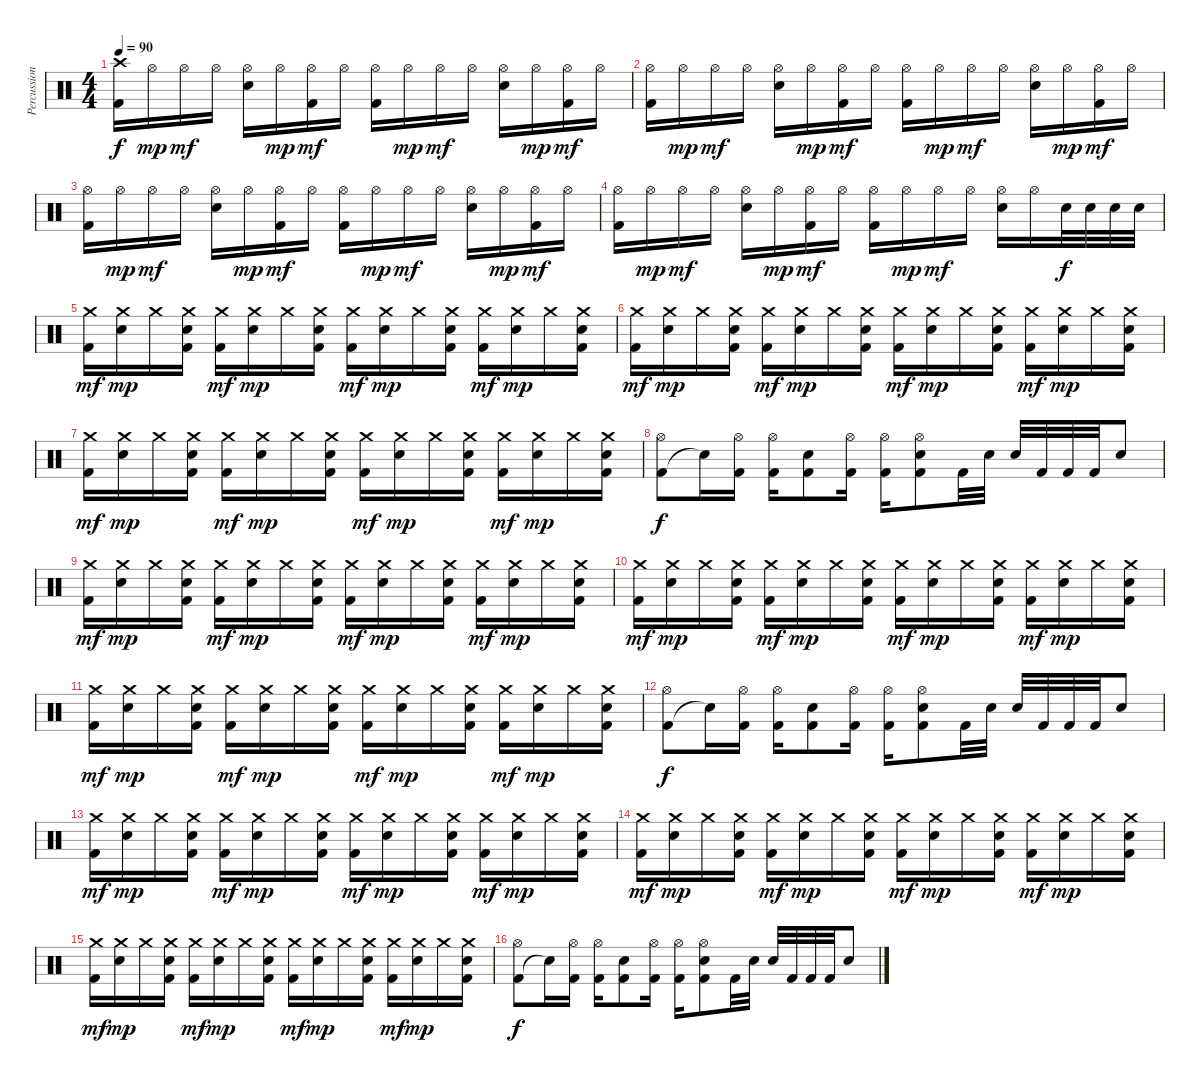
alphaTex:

\track ("Percussioni" "Percussion") {instrument percussion}
\staff {score}
\articulation defaults
\ts (4 4)
\tempo 90
\clef neutral
\ks c
("Kick (hit) 2" "Crash high (hit)").16{dy f} "Hi-Hat (open)".16{dy mp} "Hi-Hat (open)".16{dy mf} "Hi-Hat (open)".16 ("Electric Snare (hit)" "Hi-Hat (open)").16 "Hi-Hat (open)".16{dy mp} ("Kick (hit) 2" "Hi-Hat (open)").16{dy mf} "Hi-Hat (open)".16 ("Kick (hit) 2" "Hi-Hat (open)").16 "Hi-Hat (open)".16{dy mp} "Hi-Hat (open)".16{dy mf} "Hi-Hat (open)".16 ("Electric Snare (hit)" "Hi-Hat (open)").16 "Hi-Hat (open)".16{dy mp} ("Kick (hit) 2" "Hi-Hat (open)").16{dy mf} "Hi-Hat (open)".16 |
("Kick (hit) 2" "Hi-Hat (open)").16 "Hi-Hat (open)".16{dy mp} "Hi-Hat (open)".16{dy mf} "Hi-Hat (open)".16 ("Electric Snare (hit)" "Hi-Hat (open)").16 "Hi-Hat (open)".16{dy mp} ("Kick (hit) 2" "Hi-Hat (open)").16{dy mf} "Hi-Hat (open)".16 ("Kick (hit) 2" "Hi-Hat (open)").16 "Hi-Hat (open)".16{dy mp} "Hi-Hat (open)".16{dy mf} "Hi-Hat (open)".16 ("Electric Snare (hit)" "Hi-Hat (open)").16 "Hi-Hat (open)".16{dy mp} ("Kick (hit) 2" "Hi-Hat (open)").16{dy mf} "Hi-Hat (open)".16 |
("Kick (hit) 2" "Hi-Hat (open)").16 "Hi-Hat (open)".16{dy mp} "Hi-Hat (open)".16{dy mf} "Hi-Hat (open)".16 ("Electric Snare (hit)" "Hi-Hat (open)").16 "Hi-Hat (open)".16{dy mp} ("Kick (hit) 2" "Hi-Hat (open)").16{dy mf} "Hi-Hat (open)".16 ("Kick (hit) 2" "Hi-Hat (open)").16 "Hi-Hat (open)".16{dy mp} "Hi-Hat (open)".16{dy mf} "Hi-Hat (open)".16 ("Electric Snare (hit)" "Hi-Hat (open)").16 "Hi-Hat (open)".16{dy mp} ("Kick (hit) 2" "Hi-Hat (open)").16{dy mf} "Hi-Hat (open)".16 |
("Kick (hit) 2" "Hi-Hat (open)").16 "Hi-Hat (open)".16{dy mp} "Hi-Hat (open)".16{dy mf} "Hi-Hat (open)".16 ("Electric Snare (hit)" "Hi-Hat (open)").16 "Hi-Hat (open)".16{dy mp} ("Kick (hit) 2" "Hi-Hat (open)").16{dy mf} "Hi-Hat (open)".16 ("Kick (hit) 2" "Hi-Hat (open)").16 "Hi-Hat (open)".16{dy mp} "Hi-Hat (open)".16{dy mf} "Hi-Hat (open)".16 ("Electric Snare (hit)" "Hi-Hat (open)").16 "Hi-Hat (open)".16 "Electric Snare (hit)".32{dy f} "Electric Snare (hit)".32 "Electric Snare (hit)".32 "Electric Snare (hit)".32 |
("Kick (hit) 2" "Crash medium (hit)").16{dy mf} ("Electric Snare (hit)" "Crash medium (hit)").16{dy mp} "Crash medium (hit)".16 ("Kick (hit) 2" "Electric Snare (hit)" "Crash medium (hit)").16 ("Kick (hit) 2" "Crash medium (hit)").16{dy mf} ("Electric Snare (hit)" "Crash medium (hit)").16{dy mp} "Crash medium (hit)".16 ("Kick (hit) 2" "Electric Snare (hit)" "Crash medium (hit)").16 ("Kick (hit) 2" "Crash medium (hit)").16{dy mf} ("Electric Snare (hit)" "Crash medium (hit)").16{dy mp} "Crash medium (hit)".16 ("Kick (hit) 2" "Electric Snare (hit)" "Crash medium (hit)").16 ("Kick (hit) 2" "Crash medium (hit)").16{dy mf} ("Electric Snare (hit)" "Crash medium (hit)").16{dy mp} "Crash medium (hit)".16 ("Kick (hit) 2" "Electric Snare (hit)" "Crash medium (hit)").16 |
("Kick (hit) 2" "Crash medium (hit)").16{dy mf} ("Electric Snare (hit)" "Crash medium (hit)").16{dy mp} "Crash medium (hit)".16 ("Kick (hit) 2" "Electric Snare (hit)" "Crash medium (hit)").16 ("Kick (hit) 2" "Crash medium (hit)").16{dy mf} ("Electric Snare (hit)" "Crash medium (hit)").16{dy mp} "Crash medium (hit)".16 ("Kick (hit) 2" "Electric Snare (hit)" "Crash medium (hit)").16 ("Kick (hit) 2" "Crash medium (hit)").16{dy mf} ("Electric Snare (hit)" "Crash medium (hit)").16{dy mp} "Crash medium (hit)".16 ("Kick (hit) 2" "Electric Snare (hit)" "Crash medium (hit)").16 ("Kick (hit) 2" "Crash medium (hit)").16{dy mf} ("Electric Snare (hit)" "Crash medium (hit)").16{dy mp} "Crash medium (hit)".16 ("Kick (hit) 2" "Electric Snare (hit)" "Crash medium (hit)").16 |
("Kick (hit) 2" "Crash medium (hit)").16{dy mf} ("Electric Snare (hit)" "Crash medium (hit)").16{dy mp} "Crash medium (hit)".16 ("Kick (hit) 2" "Electric Snare (hit)" "Crash medium (hit)").16 ("Kick (hit) 2" "Crash medium (hit)").16{dy mf} ("Electric Snare (hit)" "Crash medium (hit)").16{dy mp} "Crash medium (hit)".16 ("Kick (hit) 2" "Electric Snare (hit)" "Crash medium (hit)").16 ("Kick (hit) 2" "Crash medium (hit)").16{dy mf} ("Electric Snare (hit)" "Crash medium (hit)").16{dy mp} "Crash medium (hit)".16 ("Kick (hit) 2" "Electric Snare (hit)" "Crash medium (hit)").16 ("Kick (hit) 2" "Crash medium (hit)").16{dy mf} ("Electric Snare (hit)" "Crash medium (hit)").16{dy mp} "Crash medium (hit)".16 ("Kick (hit) 2" "Electric Snare (hit)" "Crash medium (hit)").16 |
("Kick (hit) 2" "Hi-Hat (open)").8{dy f} "Snare (hit)"{t}.16 ("Kick (hit) 2" "Hi-Hat (open)").16 ("Kick (hit) 2" "Hi-Hat (open)").16 ("Kick (hit) 2" "Electric Snare (hit)").8 ("Kick (hit) 2" "Hi-Hat (open)").16 ("Kick (hit) 2" "Hi-Hat (open)").16 ("Kick (hit) 2" "Electric Snare (hit)" "Hi-Hat (open)").8 "Kick (hit) 2".32 "Electric Snare (hit)".32 "Electric Snare (hit)".32 "Kick (hit) 2".32 "Kick (hit) 2".32 "Kick (hit) 2".32 "Electric Snare (hit)".8 |
("Kick (hit) 2" "Crash medium (hit)").16{dy mf} ("Electric Snare (hit)" "Crash medium (hit)").16{dy mp} "Crash medium (hit)".16 ("Kick (hit) 2" "Electric Snare (hit)" "Crash medium (hit)").16 ("Kick (hit) 2" "Crash medium (hit)").16{dy mf} ("Electric Snare (hit)" "Crash medium (hit)").16{dy mp} "Crash medium (hit)".16 ("Kick (hit) 2" "Electric Snare (hit)" "Crash medium (hit)").16 ("Kick (hit) 2" "Crash medium (hit)").16{dy mf} ("Electric Snare (hit)" "Crash medium (hit)").16{dy mp} "Crash medium (hit)".16 ("Kick (hit) 2" "Electric Snare (hit)" "Crash medium (hit)").16 ("Kick (hit) 2" "Crash medium (hit)").16{dy mf} ("Electric Snare (hit)" "Crash medium (hit)").16{dy mp} "Crash medium (hit)".16 ("Kick (hit) 2" "Electric Snare (hit)" "Crash medium (hit)").16 |
("Kick (hit) 2" "Crash medium (hit)").16{dy mf} ("Electric Snare (hit)" "Crash medium (hit)").16{dy mp} "Crash medium (hit)".16 ("Kick (hit) 2" "Electric Snare (hit)" "Crash medium (hit)").16 ("Kick (hit) 2" "Crash medium (hit)").16{dy mf} ("Electric Snare (hit)" "Crash medium (hit)").16{dy mp} "Crash medium (hit)".16 ("Kick (hit) 2" "Electric Snare (hit)" "Crash medium (hit)").16 ("Kick (hit) 2" "Crash medium (hit)").16{dy mf} ("Electric Snare (hit)" "Crash medium (hit)").16{dy mp} "Crash medium (hit)".16 ("Kick (hit) 2" "Electric Snare (hit)" "Crash medium (hit)").16 ("Kick (hit) 2" "Crash medium (hit)").16{dy mf} ("Electric Snare (hit)" "Crash medium (hit)").16{dy mp} "Crash medium (hit)".16 ("Kick (hit) 2" "Electric Snare (hit)" "Crash medium (hit)").16 |
("Kick (hit) 2" "Crash medium (hit)").16{dy mf} ("Electric Snare (hit)" "Crash medium (hit)").16{dy mp} "Crash medium (hit)".16 ("Kick (hit) 2" "Electric Snare (hit)" "Crash medium (hit)").16 ("Kick (hit) 2" "Crash medium (hit)").16{dy mf} ("Electric Snare (hit)" "Crash medium (hit)").16{dy mp} "Crash medium (hit)".16 ("Kick (hit) 2" "Electric Snare (hit)" "Crash medium (hit)").16 ("Kick (hit) 2" "Crash medium (hit)").16{dy mf} ("Electric Snare (hit)" "Crash medium (hit)").16{dy mp} "Crash medium (hit)".16 ("Kick (hit) 2" "Electric Snare (hit)" "Crash medium (hit)").16 ("Kick (hit) 2" "Crash medium (hit)").16{dy mf} ("Electric Snare (hit)" "Crash medium (hit)").16{dy mp} "Crash medium (hit)".16 ("Kick (hit) 2" "Electric Snare (hit)" "Crash medium (hit)").16 |
("Kick (hit) 2" "Hi-Hat (open)").8{dy f} "Snare (hit)"{t}.16 ("Kick (hit) 2" "Hi-Hat (open)").16 ("Kick (hit) 2" "Hi-Hat (open)").16 ("Kick (hit) 2" "Electric Snare (hit)").8 ("Kick (hit) 2" "Hi-Hat (open)").16 ("Kick (hit) 2" "Hi-Hat (open)").16 ("Kick (hit) 2" "Electric Snare (hit)" "Hi-Hat (open)").8 "Kick (hit) 2".32 "Electric Snare (hit)".32 "Electric Snare (hit)".32 "Kick (hit) 2".32 "Kick (hit) 2".32 "Kick (hit) 2".32 "Electric Snare (hit)".8 |
("Kick (hit) 2" "Crash medium (hit)").16{dy mf} ("Electric Snare (hit)" "Crash medium (hit)").16{dy mp} "Crash medium (hit)".16 ("Kick (hit) 2" "Electric Snare (hit)" "Crash medium (hit)").16 ("Kick (hit) 2" "Crash medium (hit)").16{dy mf} ("Electric Snare (hit)" "Crash medium (hit)").16{dy mp} "Crash medium (hit)".16 ("Kick (hit) 2" "Electric Snare (hit)" "Crash medium (hit)").16 ("Kick (hit) 2" "Crash medium (hit)").16{dy mf} ("Electric Snare (hit)" "Crash medium (hit)").16{dy mp} "Crash medium (hit)".16 ("Kick (hit) 2" "Electric Snare (hit)" "Crash medium (hit)").16 ("Kick (hit) 2" "Crash medium (hit)").16{dy mf} ("Electric Snare (hit)" "Crash medium (hit)").16{dy mp} "Crash medium (hit)".16 ("Kick (hit) 2" "Electric Snare (hit)" "Crash medium (hit)").16 |
("Kick (hit) 2" "Crash medium (hit)").16{dy mf} ("Electric Snare (hit)" "Crash medium (hit)").16{dy mp} "Crash medium (hit)".16 ("Kick (hit) 2" "Electric Snare (hit)" "Crash medium (hit)").16 ("Kick (hit) 2" "Crash medium (hit)").16{dy mf} ("Electric Snare (hit)" "Crash medium (hit)").16{dy mp} "Crash medium (hit)".16 ("Kick (hit) 2" "Electric Snare (hit)" "Crash medium (hit)").16 ("Kick (hit) 2" "Crash medium (hit)").16{dy mf} ("Electric Snare (hit)" "Crash medium (hit)").16{dy mp} "Crash medium (hit)".16 ("Kick (hit) 2" "Electric Snare (hit)" "Crash medium (hit)").16 ("Kick (hit) 2" "Crash medium (hit)").16{dy mf} ("Electric Snare (hit)" "Crash medium (hit)").16{dy mp} "Crash medium (hit)".16 ("Kick (hit) 2" "Electric Snare (hit)" "Crash medium (hit)").16 |
("Kick (hit) 2" "Crash medium (hit)").16{dy mf} ("Electric Snare (hit)" "Crash medium (hit)").16{dy mp} "Crash medium (hit)".16 ("Kick (hit) 2" "Electric Snare (hit)" "Crash medium (hit)").16 ("Kick (hit) 2" "Crash medium (hit)").16{dy mf} ("Electric Snare (hit)" "Crash medium (hit)").16{dy mp} "Crash medium (hit)".16 ("Kick (hit) 2" "Electric Snare (hit)" "Crash medium (hit)").16 ("Kick (hit) 2" "Crash medium (hit)").16{dy mf} ("Electric Snare (hit)" "Crash medium (hit)").16{dy mp} "Crash medium (hit)".16 ("Kick (hit) 2" "Electric Snare (hit)" "Crash medium (hit)").16 ("Kick (hit) 2" "Crash medium (hit)").16{dy mf} ("Electric Snare (hit)" "Crash medium (hit)").16{dy mp} "Crash medium (hit)".16 ("Kick (hit) 2" "Electric Snare (hit)" "Crash medium (hit)").16 |
("Kick (hit) 2" "Hi-Hat (open)").8{dy f} "Snare (hit)"{t}.16 ("Kick (hit) 2" "Hi-Hat (open)").16 ("Kick (hit) 2" "Hi-Hat (open)").16 ("Kick (hit) 2" "Electric Snare (hit)").8 ("Kick (hit) 2" "Hi-Hat (open)").16 ("Kick (hit) 2" "Hi-Hat (open)").16 ("Kick (hit) 2" "Electric Snare (hit)" "Hi-Hat (open)").8 "Kick (hit) 2".32 "Electric Snare (hit)".32 "Electric Snare (hit)".32 "Kick (hit) 2".32 "Kick (hit) 2".32 "Kick (hit) 2".32 "Electric Snare (hit)".8
